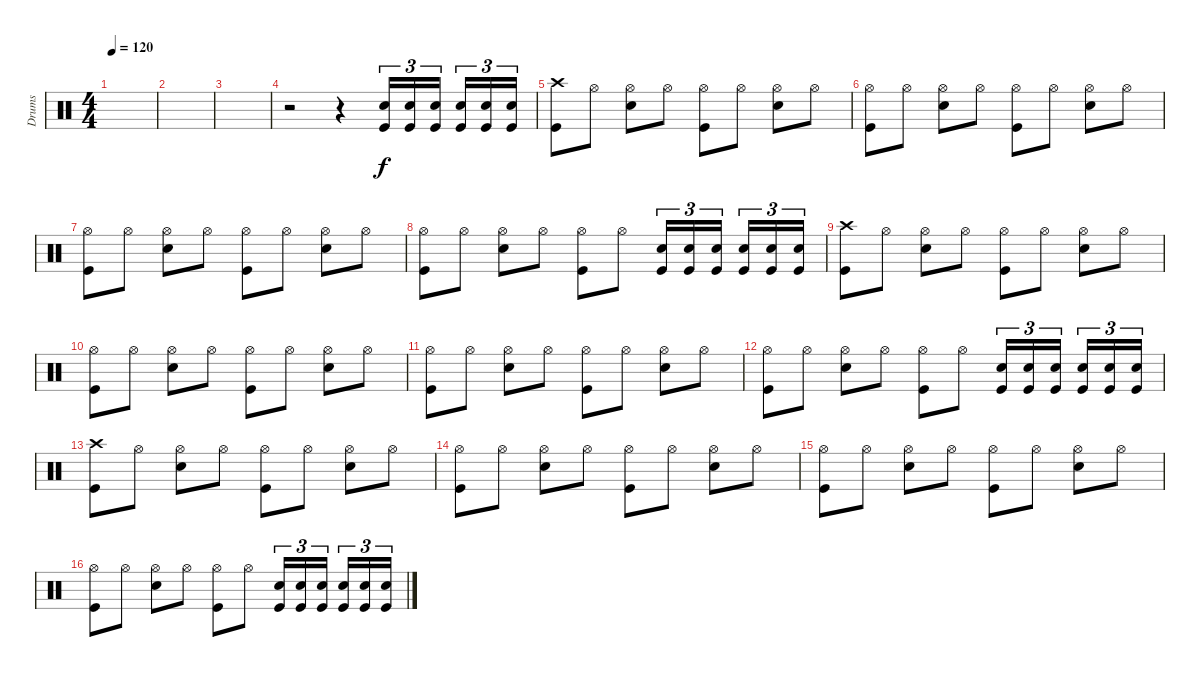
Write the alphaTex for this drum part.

\track ("Drums" "Drums") {instrument percussion}
\staff {score}
\articulation defaults
\ts (4 4)
\tempo 120
\clef neutral
\ks c
|
|
|
r.2 r.4 ("Snare (hit) 2" "Kick (hit)").16{tu (3 2)} ("Snare (hit) 2" "Kick (hit)").16{tu (3 2)} ("Snare (hit) 2" "Kick (hit)").16{tu (3 2)} ("Snare (hit) 2" "Kick (hit)").16{tu (3 2)} ("Snare (hit) 2" "Kick (hit)").16{tu (3 2)} ("Snare (hit) 2" "Kick (hit)").16{tu (3 2)} |
("Crash high (hit)" "Kick (hit)").8 "Hi-Hat (open)".8 ("Hi-Hat (open)" "Snare (hit) 2").8 "Hi-Hat (open)".8 ("Hi-Hat (open)" "Kick (hit)").8 "Hi-Hat (open)".8 ("Hi-Hat (open)" "Snare (hit) 2").8 "Hi-Hat (open)".8 |
("Hi-Hat (open)" "Kick (hit)").8 "Hi-Hat (open)".8 ("Hi-Hat (open)" "Snare (hit) 2").8 "Hi-Hat (open)".8 ("Hi-Hat (open)" "Kick (hit)").8 "Hi-Hat (open)".8 ("Hi-Hat (open)" "Snare (hit) 2").8 "Hi-Hat (open)".8 |
("Hi-Hat (open)" "Kick (hit)").8 "Hi-Hat (open)".8 ("Hi-Hat (open)" "Snare (hit) 2").8 "Hi-Hat (open)".8 ("Hi-Hat (open)" "Kick (hit)").8 "Hi-Hat (open)".8 ("Hi-Hat (open)" "Snare (hit) 2").8 "Hi-Hat (open)".8 |
("Hi-Hat (open)" "Kick (hit)").8 "Hi-Hat (open)".8 ("Hi-Hat (open)" "Snare (hit) 2").8 "Hi-Hat (open)".8 ("Hi-Hat (open)" "Kick (hit)").8 "Hi-Hat (open)".8 ("Snare (hit) 2" "Kick (hit)").16{tu (3 2)} ("Snare (hit) 2" "Kick (hit)").16{tu (3 2)} ("Snare (hit) 2" "Kick (hit)").16{tu (3 2)} ("Snare (hit) 2" "Kick (hit)").16{tu (3 2)} ("Snare (hit) 2" "Kick (hit)").16{tu (3 2)} ("Snare (hit) 2" "Kick (hit)").16{tu (3 2)} |
("Crash high (hit)" "Kick (hit)").8 "Hi-Hat (open)".8 ("Hi-Hat (open)" "Snare (hit) 2").8 "Hi-Hat (open)".8 ("Hi-Hat (open)" "Kick (hit)").8 "Hi-Hat (open)".8 ("Hi-Hat (open)" "Snare (hit) 2").8 "Hi-Hat (open)".8 |
("Hi-Hat (open)" "Kick (hit)").8 "Hi-Hat (open)".8 ("Hi-Hat (open)" "Snare (hit) 2").8 "Hi-Hat (open)".8 ("Hi-Hat (open)" "Kick (hit)").8 "Hi-Hat (open)".8 ("Hi-Hat (open)" "Snare (hit) 2").8 "Hi-Hat (open)".8 |
("Hi-Hat (open)" "Kick (hit)").8 "Hi-Hat (open)".8 ("Hi-Hat (open)" "Snare (hit) 2").8 "Hi-Hat (open)".8 ("Hi-Hat (open)" "Kick (hit)").8 "Hi-Hat (open)".8 ("Hi-Hat (open)" "Snare (hit) 2").8 "Hi-Hat (open)".8 |
("Hi-Hat (open)" "Kick (hit)").8 "Hi-Hat (open)".8 ("Hi-Hat (open)" "Snare (hit) 2").8 "Hi-Hat (open)".8 ("Hi-Hat (open)" "Kick (hit)").8 "Hi-Hat (open)".8 ("Snare (hit) 2" "Kick (hit)").16{tu (3 2)} ("Snare (hit) 2" "Kick (hit)").16{tu (3 2)} ("Snare (hit) 2" "Kick (hit)").16{tu (3 2)} ("Snare (hit) 2" "Kick (hit)").16{tu (3 2)} ("Snare (hit) 2" "Kick (hit)").16{tu (3 2)} ("Snare (hit) 2" "Kick (hit)").16{tu (3 2)} |
("Crash high (hit)" "Kick (hit)").8 "Hi-Hat (open)".8 ("Hi-Hat (open)" "Snare (hit) 2").8 "Hi-Hat (open)".8 ("Hi-Hat (open)" "Kick (hit)").8 "Hi-Hat (open)".8 ("Hi-Hat (open)" "Snare (hit) 2").8 "Hi-Hat (open)".8 |
("Hi-Hat (open)" "Kick (hit)").8 "Hi-Hat (open)".8 ("Hi-Hat (open)" "Snare (hit) 2").8 "Hi-Hat (open)".8 ("Hi-Hat (open)" "Kick (hit)").8 "Hi-Hat (open)".8 ("Hi-Hat (open)" "Snare (hit) 2").8 "Hi-Hat (open)".8 |
("Hi-Hat (open)" "Kick (hit)").8 "Hi-Hat (open)".8 ("Hi-Hat (open)" "Snare (hit) 2").8 "Hi-Hat (open)".8 ("Hi-Hat (open)" "Kick (hit)").8 "Hi-Hat (open)".8 ("Hi-Hat (open)" "Snare (hit) 2").8 "Hi-Hat (open)".8 |
("Hi-Hat (open)" "Kick (hit)").8 "Hi-Hat (open)".8 ("Hi-Hat (open)" "Snare (hit) 2").8 "Hi-Hat (open)".8 ("Hi-Hat (open)" "Kick (hit)").8 "Hi-Hat (open)".8 ("Snare (hit) 2" "Kick (hit)").16{tu (3 2)} ("Snare (hit) 2" "Kick (hit)").16{tu (3 2)} ("Snare (hit) 2" "Kick (hit)").16{tu (3 2)} ("Snare (hit) 2" "Kick (hit)").16{tu (3 2)} ("Snare (hit) 2" "Kick (hit)").16{tu (3 2)} ("Snare (hit) 2" "Kick (hit)").16{tu (3 2)}
